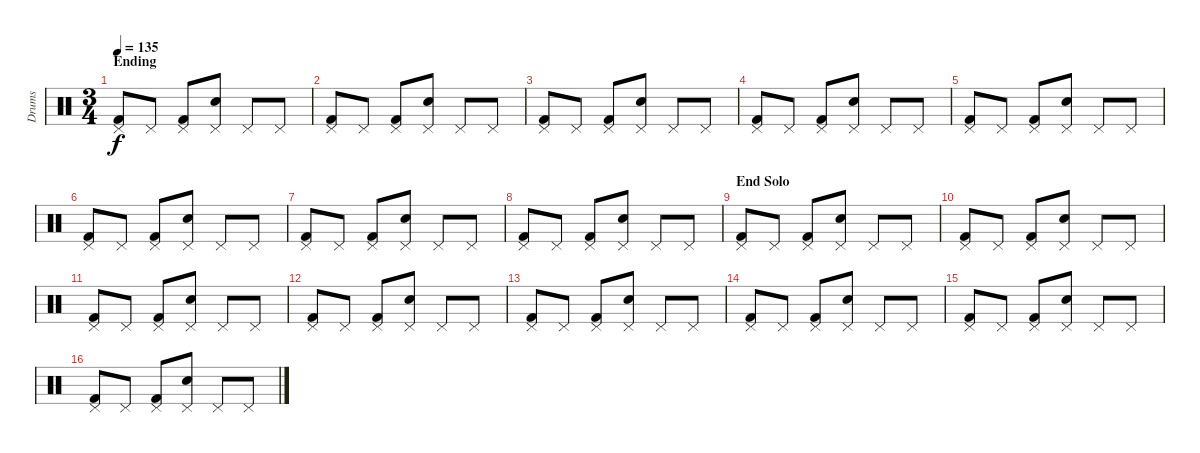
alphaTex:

\track ("Drums" "Drums") {instrument percussion}
\staff {score}
\articulation defaults
\ts (3 4)
\section ("" "Ending")
\tempo 135
\clef neutral
\ks c
("Pedal Hi-Hat (hit)" "Kick (hit) 2").8{dy f} "Pedal Hi-Hat (hit)".8 ("Pedal Hi-Hat (hit)" "Kick (hit) 2").8 ("Pedal Hi-Hat (hit)" "Snare (hit) 2").8 "Pedal Hi-Hat (hit)".8 "Pedal Hi-Hat (hit)".8 |
("Pedal Hi-Hat (hit)" "Kick (hit) 2").8 "Pedal Hi-Hat (hit)".8 ("Pedal Hi-Hat (hit)" "Kick (hit) 2").8 ("Pedal Hi-Hat (hit)" "Snare (hit) 2").8 "Pedal Hi-Hat (hit)".8 "Pedal Hi-Hat (hit)".8 |
("Pedal Hi-Hat (hit)" "Kick (hit) 2").8 "Pedal Hi-Hat (hit)".8 ("Pedal Hi-Hat (hit)" "Kick (hit) 2").8 ("Pedal Hi-Hat (hit)" "Snare (hit) 2").8 "Pedal Hi-Hat (hit)".8 "Pedal Hi-Hat (hit)".8 |
("Pedal Hi-Hat (hit)" "Kick (hit) 2").8 "Pedal Hi-Hat (hit)".8 ("Pedal Hi-Hat (hit)" "Kick (hit) 2").8 ("Pedal Hi-Hat (hit)" "Snare (hit) 2").8 "Pedal Hi-Hat (hit)".8 "Pedal Hi-Hat (hit)".8 |
("Pedal Hi-Hat (hit)" "Kick (hit) 2").8 "Pedal Hi-Hat (hit)".8 ("Pedal Hi-Hat (hit)" "Kick (hit) 2").8 ("Pedal Hi-Hat (hit)" "Snare (hit) 2").8 "Pedal Hi-Hat (hit)".8 "Pedal Hi-Hat (hit)".8 |
("Pedal Hi-Hat (hit)" "Kick (hit) 2").8 "Pedal Hi-Hat (hit)".8 ("Pedal Hi-Hat (hit)" "Kick (hit) 2").8 ("Pedal Hi-Hat (hit)" "Snare (hit) 2").8 "Pedal Hi-Hat (hit)".8 "Pedal Hi-Hat (hit)".8 |
("Pedal Hi-Hat (hit)" "Kick (hit) 2").8 "Pedal Hi-Hat (hit)".8 ("Pedal Hi-Hat (hit)" "Kick (hit) 2").8 ("Pedal Hi-Hat (hit)" "Snare (hit) 2").8 "Pedal Hi-Hat (hit)".8 "Pedal Hi-Hat (hit)".8 |
("Pedal Hi-Hat (hit)" "Kick (hit) 2").8 "Pedal Hi-Hat (hit)".8 ("Pedal Hi-Hat (hit)" "Kick (hit) 2").8 ("Pedal Hi-Hat (hit)" "Snare (hit) 2").8 "Pedal Hi-Hat (hit)".8 "Pedal Hi-Hat (hit)".8 |
\section ("" "End Solo")
("Pedal Hi-Hat (hit)" "Kick (hit) 2").8 "Pedal Hi-Hat (hit)".8 ("Pedal Hi-Hat (hit)" "Kick (hit) 2").8 ("Pedal Hi-Hat (hit)" "Snare (hit) 2").8 "Pedal Hi-Hat (hit)".8 "Pedal Hi-Hat (hit)".8 |
("Pedal Hi-Hat (hit)" "Kick (hit) 2").8 "Pedal Hi-Hat (hit)".8 ("Pedal Hi-Hat (hit)" "Kick (hit) 2").8 ("Pedal Hi-Hat (hit)" "Snare (hit) 2").8 "Pedal Hi-Hat (hit)".8 "Pedal Hi-Hat (hit)".8 |
("Pedal Hi-Hat (hit)" "Kick (hit) 2").8 "Pedal Hi-Hat (hit)".8 ("Pedal Hi-Hat (hit)" "Kick (hit) 2").8 ("Pedal Hi-Hat (hit)" "Snare (hit) 2").8 "Pedal Hi-Hat (hit)".8 "Pedal Hi-Hat (hit)".8 |
("Pedal Hi-Hat (hit)" "Kick (hit) 2").8 "Pedal Hi-Hat (hit)".8 ("Pedal Hi-Hat (hit)" "Kick (hit) 2").8 ("Pedal Hi-Hat (hit)" "Snare (hit) 2").8 "Pedal Hi-Hat (hit)".8 "Pedal Hi-Hat (hit)".8 |
("Pedal Hi-Hat (hit)" "Kick (hit) 2").8 "Pedal Hi-Hat (hit)".8 ("Pedal Hi-Hat (hit)" "Kick (hit) 2").8 ("Pedal Hi-Hat (hit)" "Snare (hit) 2").8 "Pedal Hi-Hat (hit)".8 "Pedal Hi-Hat (hit)".8 |
("Pedal Hi-Hat (hit)" "Kick (hit) 2").8 "Pedal Hi-Hat (hit)".8 ("Pedal Hi-Hat (hit)" "Kick (hit) 2").8 ("Pedal Hi-Hat (hit)" "Snare (hit) 2").8 "Pedal Hi-Hat (hit)".8 "Pedal Hi-Hat (hit)".8 |
("Pedal Hi-Hat (hit)" "Kick (hit) 2").8 "Pedal Hi-Hat (hit)".8 ("Pedal Hi-Hat (hit)" "Kick (hit) 2").8 ("Pedal Hi-Hat (hit)" "Snare (hit) 2").8 "Pedal Hi-Hat (hit)".8 "Pedal Hi-Hat (hit)".8 |
("Pedal Hi-Hat (hit)" "Kick (hit) 2").8 "Pedal Hi-Hat (hit)".8 ("Pedal Hi-Hat (hit)" "Kick (hit) 2").8 ("Pedal Hi-Hat (hit)" "Snare (hit) 2").8 "Pedal Hi-Hat (hit)".8 "Pedal Hi-Hat (hit)".8
